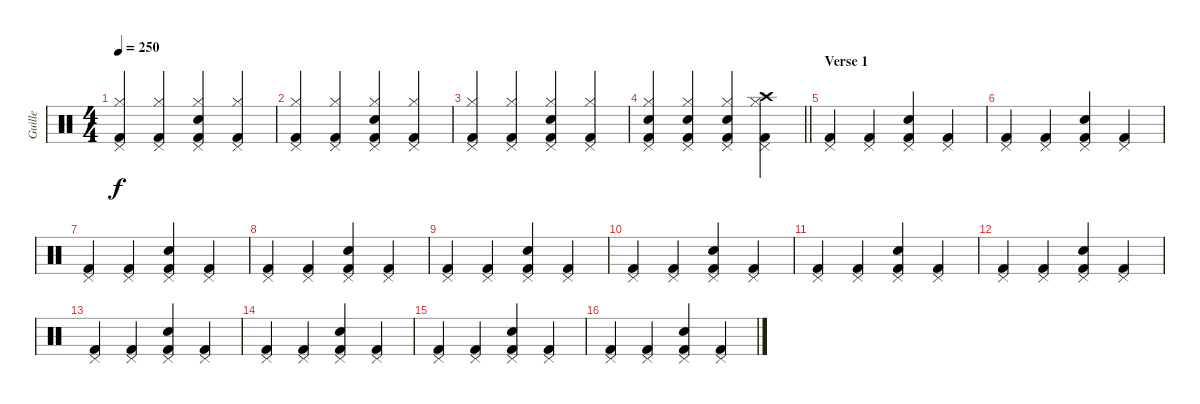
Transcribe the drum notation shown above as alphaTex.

\track ("Guille" "Guille") {instrument percussion}
\staff
\articulation defaults
\ts (4 4)
\tempo 250
\clef neutral
\ks c
("Kick (hit) 2" "Hi-Hat (closed)" "Pedal Hi-Hat (hit)").4{dy f} ("Kick (hit) 2" "Hi-Hat (closed)" "Pedal Hi-Hat (hit)").4 ("Kick (hit) 2" "Electric Snare (hit)" "Hi-Hat (closed)" "Pedal Hi-Hat (hit)").4 ("Kick (hit) 2" "Hi-Hat (closed)" "Pedal Hi-Hat (hit)").4 |
("Kick (hit) 2" "Hi-Hat (closed)" "Pedal Hi-Hat (hit)").4 ("Kick (hit) 2" "Hi-Hat (closed)" "Pedal Hi-Hat (hit)").4 ("Kick (hit) 2" "Electric Snare (hit)" "Hi-Hat (closed)" "Pedal Hi-Hat (hit)").4 ("Kick (hit) 2" "Hi-Hat (closed)" "Pedal Hi-Hat (hit)").4 |
("Kick (hit) 2" "Hi-Hat (closed)" "Pedal Hi-Hat (hit)").4 ("Kick (hit) 2" "Hi-Hat (closed)" "Pedal Hi-Hat (hit)").4 ("Kick (hit) 2" "Electric Snare (hit)" "Hi-Hat (closed)" "Pedal Hi-Hat (hit)").4 ("Kick (hit) 2" "Hi-Hat (closed)" "Pedal Hi-Hat (hit)").4 |
\barLineRight lightlight
("Kick (hit) 2" "Electric Snare (hit)" "Hi-Hat (closed)" "Pedal Hi-Hat (hit)").4 ("Kick (hit) 2" "Electric Snare (hit)" "Hi-Hat (closed)" "Pedal Hi-Hat (hit)").4 ("Kick (hit) 2" "Electric Snare (hit)" "Hi-Hat (closed)" "Pedal Hi-Hat (hit)").4 ("Kick (hit) 2" "Hi-Hat (closed)" "Pedal Hi-Hat (hit)" "Crash high (hit)").4 |
\section ("" "Verse 1")
("Kick (hit) 2" "Pedal Hi-Hat (hit)").4 ("Kick (hit) 2" "Pedal Hi-Hat (hit)").4 ("Kick (hit) 2" "Electric Snare (hit)" "Pedal Hi-Hat (hit)").4 ("Kick (hit) 2" "Pedal Hi-Hat (hit)").4 |
("Kick (hit) 2" "Pedal Hi-Hat (hit)").4 ("Kick (hit) 2" "Pedal Hi-Hat (hit)").4 ("Kick (hit) 2" "Electric Snare (hit)" "Pedal Hi-Hat (hit)").4 ("Kick (hit) 2" "Pedal Hi-Hat (hit)").4 |
("Kick (hit) 2" "Pedal Hi-Hat (hit)").4 ("Kick (hit) 2" "Pedal Hi-Hat (hit)").4 ("Kick (hit) 2" "Electric Snare (hit)" "Pedal Hi-Hat (hit)").4 ("Kick (hit) 2" "Pedal Hi-Hat (hit)").4 |
("Kick (hit) 2" "Pedal Hi-Hat (hit)").4 ("Kick (hit) 2" "Pedal Hi-Hat (hit)").4 ("Kick (hit) 2" "Electric Snare (hit)" "Pedal Hi-Hat (hit)").4 ("Kick (hit) 2" "Pedal Hi-Hat (hit)").4 |
("Kick (hit) 2" "Pedal Hi-Hat (hit)").4 ("Kick (hit) 2" "Pedal Hi-Hat (hit)").4 ("Kick (hit) 2" "Electric Snare (hit)" "Pedal Hi-Hat (hit)").4 ("Kick (hit) 2" "Pedal Hi-Hat (hit)").4 |
("Kick (hit) 2" "Pedal Hi-Hat (hit)").4 ("Kick (hit) 2" "Pedal Hi-Hat (hit)").4 ("Kick (hit) 2" "Electric Snare (hit)" "Pedal Hi-Hat (hit)").4 ("Kick (hit) 2" "Pedal Hi-Hat (hit)").4 |
("Kick (hit) 2" "Pedal Hi-Hat (hit)").4 ("Kick (hit) 2" "Pedal Hi-Hat (hit)").4 ("Kick (hit) 2" "Electric Snare (hit)" "Pedal Hi-Hat (hit)").4 ("Kick (hit) 2" "Pedal Hi-Hat (hit)").4 |
("Kick (hit) 2" "Pedal Hi-Hat (hit)").4 ("Kick (hit) 2" "Pedal Hi-Hat (hit)").4 ("Kick (hit) 2" "Electric Snare (hit)" "Pedal Hi-Hat (hit)").4 ("Kick (hit) 2" "Pedal Hi-Hat (hit)").4 |
("Kick (hit) 2" "Pedal Hi-Hat (hit)").4 ("Kick (hit) 2" "Pedal Hi-Hat (hit)").4 ("Kick (hit) 2" "Electric Snare (hit)" "Pedal Hi-Hat (hit)").4 ("Kick (hit) 2" "Pedal Hi-Hat (hit)").4 |
("Kick (hit) 2" "Pedal Hi-Hat (hit)").4 ("Kick (hit) 2" "Pedal Hi-Hat (hit)").4 ("Kick (hit) 2" "Electric Snare (hit)" "Pedal Hi-Hat (hit)").4 ("Kick (hit) 2" "Pedal Hi-Hat (hit)").4 |
("Kick (hit) 2" "Pedal Hi-Hat (hit)").4 ("Kick (hit) 2" "Pedal Hi-Hat (hit)").4 ("Kick (hit) 2" "Electric Snare (hit)" "Pedal Hi-Hat (hit)").4 ("Kick (hit) 2" "Pedal Hi-Hat (hit)").4 |
("Kick (hit) 2" "Pedal Hi-Hat (hit)").4 ("Kick (hit) 2" "Pedal Hi-Hat (hit)").4 ("Kick (hit) 2" "Electric Snare (hit)" "Pedal Hi-Hat (hit)").4 ("Kick (hit) 2" "Pedal Hi-Hat (hit)").4
